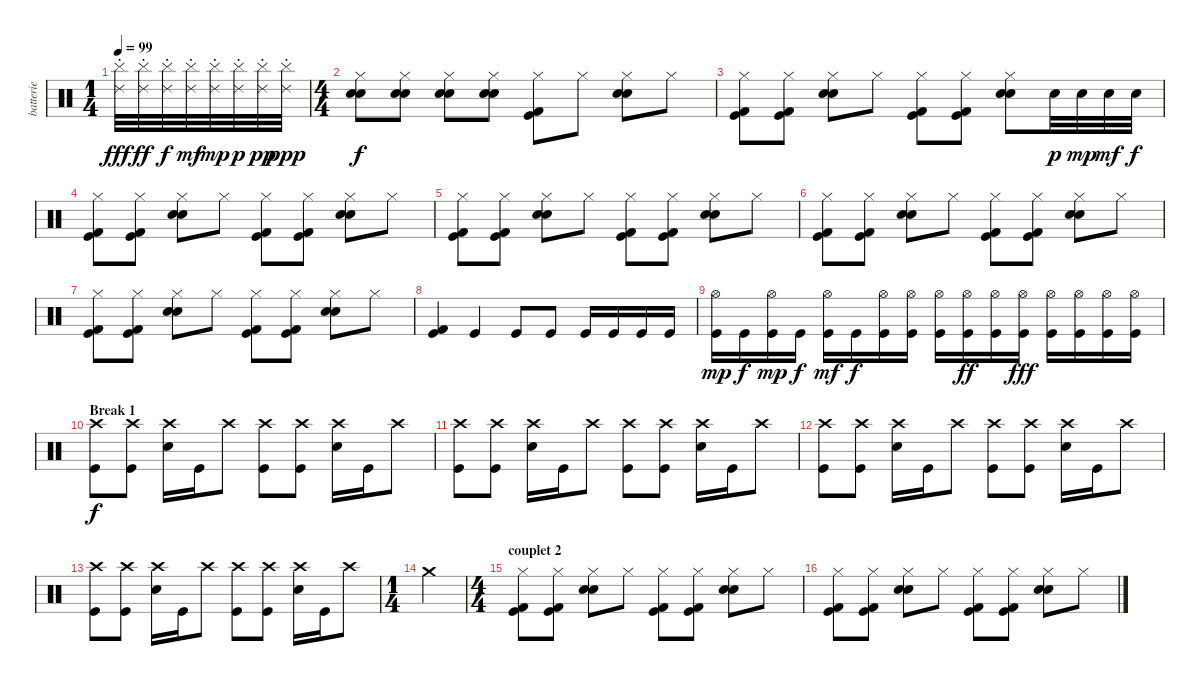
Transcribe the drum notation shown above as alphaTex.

\track ("batterie" "batterie") {instrument percussion}
\staff {score}
\articulation defaults
\ts (1 4)
\tempo 99
\clef neutral
\ks c
("Ride (choke) 2" "Cymbal (hit)").32{dy fff} ("Cymbal (hit)" "Ride (choke) 2").32{dy ff} ("Cymbal (hit)" "Ride (choke) 2").32{dy f} ("Cymbal (hit)" "Ride (choke) 2").32{dy mf} ("Cymbal (hit)" "Ride (choke) 2").32{dy mp} ("Cymbal (hit)" "Ride (choke) 2").32{dy p} ("Cymbal (hit)" "Ride (choke) 2").32{dy pp} ("Cymbal (hit)" "Ride (choke) 2").32{dy ppp} |
\ts (4 4)
("Hi-Hat (closed)" "Electric Snare (hit)" "Electric Snare (hit)").8{dy f} ("Hi-Hat (closed)" "Electric Snare (hit)" "Electric Snare (hit)").8 ("Hi-Hat (closed)" "Electric Snare (hit)" "Electric Snare (hit)").8 ("Hi-Hat (closed)" "Electric Snare (hit)" "Electric Snare (hit)").8 ("Hi-Hat (closed)" "Kick (hit) 2" "Kick (hit)").8 "Hi-Hat (closed)".8 ("Hi-Hat (closed)" "Electric Snare (hit)" "Electric Snare (hit)").8 "Hi-Hat (closed)".8 |
("Hi-Hat (closed)" "Kick (hit) 2" "Kick (hit)").8 ("Hi-Hat (closed)" "Kick (hit) 2" "Kick (hit)").8 ("Hi-Hat (closed)" "Electric Snare (hit)" "Electric Snare (hit)").8 "Hi-Hat (closed)".8 ("Hi-Hat (closed)" "Kick (hit) 2" "Kick (hit)").8 ("Hi-Hat (closed)" "Kick (hit) 2" "Kick (hit)").8 ("Hi-Hat (closed)" "Electric Snare (hit)" "Electric Snare (hit)").8 "Electric Snare (hit)".32{dy p} "Electric Snare (hit)".32{dy mp} "Electric Snare (hit)".32{dy mf} "Electric Snare (hit)".32{dy f} |
("Hi-Hat (closed)" "Kick (hit) 2" "Kick (hit)").8 ("Hi-Hat (closed)" "Kick (hit) 2" "Kick (hit)").8 ("Hi-Hat (closed)" "Electric Snare (hit)" "Electric Snare (hit)").8 "Hi-Hat (closed)".8 ("Hi-Hat (closed)" "Kick (hit) 2" "Kick (hit)").8 ("Hi-Hat (closed)" "Kick (hit) 2" "Kick (hit)").8 ("Hi-Hat (closed)" "Electric Snare (hit)" "Electric Snare (hit)").8 "Hi-Hat (closed)".8 |
("Hi-Hat (closed)" "Kick (hit) 2" "Kick (hit)").8 ("Hi-Hat (closed)" "Kick (hit) 2" "Kick (hit)").8 ("Hi-Hat (closed)" "Electric Snare (hit)" "Electric Snare (hit)").8 "Hi-Hat (closed)".8 ("Hi-Hat (closed)" "Kick (hit) 2" "Kick (hit)").8 ("Hi-Hat (closed)" "Kick (hit) 2" "Kick (hit)").8 ("Hi-Hat (closed)" "Electric Snare (hit)" "Electric Snare (hit)").8 "Hi-Hat (closed)".8 |
("Hi-Hat (closed)" "Kick (hit) 2" "Kick (hit)").8 ("Hi-Hat (closed)" "Kick (hit) 2" "Kick (hit)").8 ("Hi-Hat (closed)" "Electric Snare (hit)" "Electric Snare (hit)").8 "Hi-Hat (closed)".8 ("Hi-Hat (closed)" "Kick (hit) 2" "Kick (hit)").8 ("Hi-Hat (closed)" "Kick (hit) 2" "Kick (hit)").8 ("Hi-Hat (closed)" "Electric Snare (hit)" "Electric Snare (hit)").8 "Hi-Hat (closed)".8 |
("Hi-Hat (closed)" "Kick (hit) 2" "Kick (hit)").8 ("Hi-Hat (closed)" "Kick (hit) 2" "Kick (hit)").8 ("Hi-Hat (closed)" "Electric Snare (hit)" "Electric Snare (hit)").8 "Hi-Hat (closed)".8 ("Hi-Hat (closed)" "Kick (hit) 2" "Kick (hit)").8 ("Hi-Hat (closed)" "Kick (hit) 2" "Kick (hit)").8 ("Hi-Hat (closed)" "Electric Snare (hit)" "Electric Snare (hit)").8 "Hi-Hat (closed)".8 |
("Kick (hit) 2" "Kick (hit)").4 "Kick (hit)".4 "Kick (hit)".8 "Kick (hit)".8 "Kick (hit)".16 "Kick (hit)".16 "Kick (hit)".16 "Kick (hit)".16 |
("Hi-Hat (open)" "Kick (hit)").16{dy mp} "Kick (hit)".16{dy f} ("Hi-Hat (open)" "Kick (hit)").16{dy mp} "Kick (hit)".16{dy f} ("Hi-Hat (open)" "Kick (hit)").16{dy mf} "Kick (hit)".16{dy f} ("Hi-Hat (open)" "Kick (hit)").16 ("Hi-Hat (open)" "Kick (hit)").16 ("Hi-Hat (open)" "Kick (hit)").16 ("Hi-Hat (open)" "Kick (hit)").16{dy ff} ("Hi-Hat (open)" "Kick (hit)").16 ("Hi-Hat (open)" "Kick (hit)").16{dy fff} ("Hi-Hat (open)" "Kick (hit)").16 ("Hi-Hat (open)" "Kick (hit)").16 ("Hi-Hat (open)" "Kick (hit)").16 ("Hi-Hat (open)" "Kick (hit)").16 |
\section ("" "Break 1")
("Crash high (hit)" "Kick (hit)").8{dy f} ("Crash high (hit)" "Kick (hit)").8 ("Crash high (hit)" "Electric Snare (hit)").16 "Kick (hit)".16 "Crash high (hit)".8 ("Crash high (hit)" "Kick (hit)").8 ("Crash high (hit)" "Kick (hit)").8 ("Crash high (hit)" "Electric Snare (hit)").16 "Kick (hit)".16 "Crash high (hit)".8 |
("Crash high (hit)" "Kick (hit)").8 ("Crash high (hit)" "Kick (hit)").8 ("Crash high (hit)" "Electric Snare (hit)").16 "Kick (hit)".16 "Crash high (hit)".8 ("Crash high (hit)" "Kick (hit)").8 ("Crash high (hit)" "Kick (hit)").8 ("Crash high (hit)" "Electric Snare (hit)").16 "Kick (hit)".16 "Crash high (hit)".8 |
("Crash high (hit)" "Kick (hit)").8 ("Crash high (hit)" "Kick (hit)").8 ("Crash high (hit)" "Electric Snare (hit)").16 "Kick (hit)".16 "Crash high (hit)".8 ("Crash high (hit)" "Kick (hit)").8 ("Crash high (hit)" "Kick (hit)").8 ("Crash high (hit)" "Electric Snare (hit)").16 "Kick (hit)".16 "Crash high (hit)".8 |
("Crash high (hit)" "Kick (hit)").8 ("Crash high (hit)" "Kick (hit)").8 ("Crash high (hit)" "Electric Snare (hit)").16 "Kick (hit)".16 "Crash high (hit)".8 ("Crash high (hit)" "Kick (hit)").8 ("Crash high (hit)" "Kick (hit)").8 ("Crash high (hit)" "Electric Snare (hit)").16 "Kick (hit)".16 "Crash high (hit)".8 |
\ts (1 4)
"Crash medium (hit)".4 |
\ts (4 4)
\section ("" "couplet 2")
("Hi-Hat (closed)" "Kick (hit) 2" "Kick (hit)").8 ("Hi-Hat (closed)" "Kick (hit) 2" "Kick (hit)").8 ("Hi-Hat (closed)" "Electric Snare (hit)" "Electric Snare (hit)").8 "Hi-Hat (closed)".8 ("Hi-Hat (closed)" "Kick (hit) 2" "Kick (hit)").8 ("Hi-Hat (closed)" "Kick (hit) 2" "Kick (hit)").8 ("Hi-Hat (closed)" "Electric Snare (hit)" "Electric Snare (hit)").8 "Hi-Hat (closed)".8 |
("Hi-Hat (closed)" "Kick (hit) 2" "Kick (hit)").8 ("Hi-Hat (closed)" "Kick (hit) 2" "Kick (hit)").8 ("Hi-Hat (closed)" "Electric Snare (hit)" "Electric Snare (hit)").8 "Hi-Hat (closed)".8 ("Hi-Hat (closed)" "Kick (hit) 2" "Kick (hit)").8 ("Hi-Hat (closed)" "Kick (hit) 2" "Kick (hit)").8 ("Hi-Hat (closed)" "Electric Snare (hit)" "Electric Snare (hit)").8 "Hi-Hat (closed)".8
